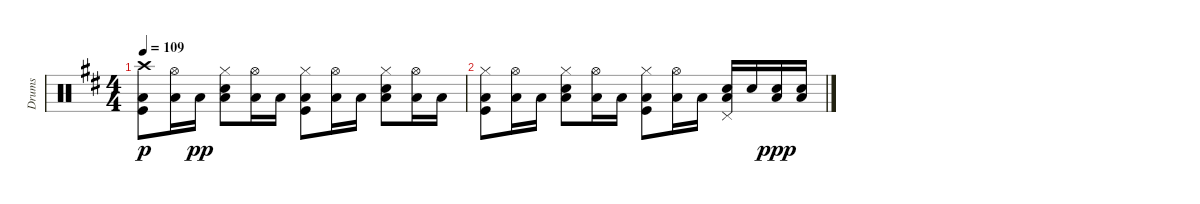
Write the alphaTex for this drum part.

\track ("Drums" "Drums") {instrument percussion}
\staff {score}
\articulation defaults
\ts (4 4)
\tempo 109
\clef neutral
\ks d
("Crash high (hit)" "Kick (hit)" "Low Tom (hit)").8{dy p} ("Hi-Hat (open)" "Low Tom (hit)").16 "Low Tom (hit)".16{dy pp} ("Hi-Hat (closed)" "Snare (hit) 2" "Low Tom (hit)").8 ("Hi-Hat (open)" "Low Tom (hit)").16 "Low Tom (hit)".16 ("Hi-Hat (closed)" "Kick (hit)" "Low Tom (hit)").8 ("Hi-Hat (open)" "Low Tom (hit)").16 "Low Tom (hit)".16 ("Hi-Hat (closed)" "Snare (hit) 2" "Low Tom (hit)").8 ("Hi-Hat (open)" "Low Tom (hit)").16 "Low Tom (hit)".16 |
("Hi-Hat (closed)" "Kick (hit)" "Low Tom (hit)").8 ("Hi-Hat (open)" "Low Tom (hit)").16 "Low Tom (hit)".16 ("Hi-Hat (closed)" "Snare (hit) 2" "Low Tom (hit)").8 ("Hi-Hat (open)" "Low Tom (hit)").16 "Low Tom (hit)".16 ("Hi-Hat (closed)" "Kick (hit)" "Low Tom (hit)").8 ("Hi-Hat (open)" "Low Tom (hit)").16 "Low Tom (hit)".16 ("Pedal Hi-Hat (hit)" "Snare (hit) 2" "Low Tom (hit)").16 "Snare (hit) 2".16 ("Snare (hit) 2" "Low Tom (hit)").16{dy ppp} ("Snare (hit) 2" "Low Tom (hit)").16
